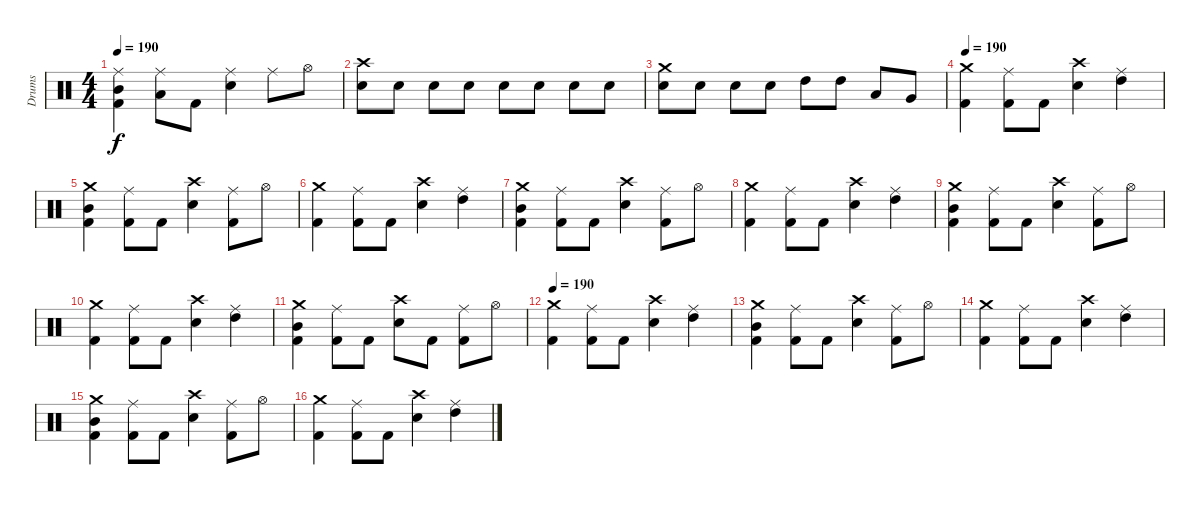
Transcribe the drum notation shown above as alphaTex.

\track ("Drums" "Drums") {instrument percussion}
\staff {score}
\articulation defaults
\ts (4 4)
\tempo 190
\clef neutral
\ks c
("Ride (middle)" "Mid Tom (hit)" "Kick (hit) 2").4{dy f} ("Ride (middle)" "Low Tom (hit)").8 "Kick (hit) 2".8 ("Ride (middle)" "Electric Snare (hit)").4 "Ride (middle)".8 "Hi-Hat (open)".8 |
("Crash high (hit)" "Electric Snare (hit)").8 "Electric Snare (hit)".8 "Electric Snare (hit)".8 "Electric Snare (hit)".8 "Electric Snare (hit)".8 "Electric Snare (hit)".8 "Electric Snare (hit)".8 "Electric Snare (hit)".8 |
("Crash medium (hit)" "Electric Snare (hit)").8 "Electric Snare (hit)".8 "Electric Snare (hit)".8 "Electric Snare (hit)".8 "High Tom (hit)".8 "High Tom (hit)".8 "Low Tom (hit)".8 "Very Low Tom (hit)".8 |
\tempo 190
("Crash medium (hit)" "Kick (hit) 2").4 ("Ride (middle)" "Kick (hit) 2").8 "Kick (hit) 2".8 ("Crash high (hit)" "Electric Snare (hit)").4 ("Ride (middle)" "High Tom (hit)").4 |
("Crash medium (hit)" "Mid Tom (hit)" "Kick (hit) 2").4 ("Ride (middle)" "Kick (hit) 2").8 "Kick (hit) 2".8 ("Crash high (hit)" "Electric Snare (hit)").4 ("Ride (middle)" "Kick (hit) 2").8 "Hi-Hat (open)".8 |
("Crash medium (hit)" "Kick (hit) 2").4 ("Ride (middle)" "Kick (hit) 2").8 "Kick (hit) 2".8 ("Crash high (hit)" "Electric Snare (hit)").4 ("Ride (middle)" "High Tom (hit)").4 |
("Crash medium (hit)" "Mid Tom (hit)" "Kick (hit) 2").4 ("Ride (middle)" "Kick (hit) 2").8 "Kick (hit) 2".8 ("Crash high (hit)" "Electric Snare (hit)").4 ("Ride (middle)" "Kick (hit) 2").8 "Hi-Hat (open)".8 |
("Crash medium (hit)" "Kick (hit) 2").4 ("Ride (middle)" "Kick (hit) 2").8 "Kick (hit) 2".8 ("Crash high (hit)" "Electric Snare (hit)").4 ("Ride (middle)" "High Tom (hit)").4 |
("Crash medium (hit)" "Mid Tom (hit)" "Kick (hit) 2").4 ("Ride (middle)" "Kick (hit) 2").8 "Kick (hit) 2".8 ("Crash high (hit)" "Electric Snare (hit)").4 ("Ride (middle)" "Kick (hit) 2").8 "Hi-Hat (open)".8 |
("Crash medium (hit)" "Kick (hit) 2").4 ("Ride (middle)" "Kick (hit) 2").8 "Kick (hit) 2".8 ("Crash high (hit)" "Electric Snare (hit)").4 ("Ride (middle)" "High Tom (hit)").4 |
("Crash medium (hit)" "Mid Tom (hit)" "Kick (hit) 2").4 ("Ride (middle)" "Kick (hit) 2").8 "Kick (hit) 2".8 ("Crash high (hit)" "Electric Snare (hit)").8 "Kick (hit) 2".8 ("Ride (middle)" "Kick (hit) 2").8 "Hi-Hat (open)".8 |
\tempo 190
("Crash medium (hit)" "Kick (hit) 2").4 ("Ride (middle)" "Kick (hit) 2").8 "Kick (hit) 2".8 ("Crash high (hit)" "Electric Snare (hit)").4 ("Ride (middle)" "High Tom (hit)").4 |
("Crash medium (hit)" "Mid Tom (hit)" "Kick (hit) 2").4 ("Ride (middle)" "Kick (hit) 2").8 "Kick (hit) 2".8 ("Crash high (hit)" "Electric Snare (hit)").4 ("Ride (middle)" "Kick (hit) 2").8 "Hi-Hat (open)".8 |
("Crash medium (hit)" "Kick (hit) 2").4 ("Ride (middle)" "Kick (hit) 2").8 "Kick (hit) 2".8 ("Crash high (hit)" "Electric Snare (hit)").4 ("Ride (middle)" "High Tom (hit)").4 |
("Crash medium (hit)" "Mid Tom (hit)" "Kick (hit) 2").4 ("Ride (middle)" "Kick (hit) 2").8 "Kick (hit) 2".8 ("Crash high (hit)" "Electric Snare (hit)").4 ("Ride (middle)" "Kick (hit) 2").8 "Hi-Hat (open)".8 |
("Crash medium (hit)" "Kick (hit) 2").4 ("Ride (middle)" "Kick (hit) 2").8 "Kick (hit) 2".8 ("Crash high (hit)" "Electric Snare (hit)").4 ("Ride (middle)" "High Tom (hit)").4
